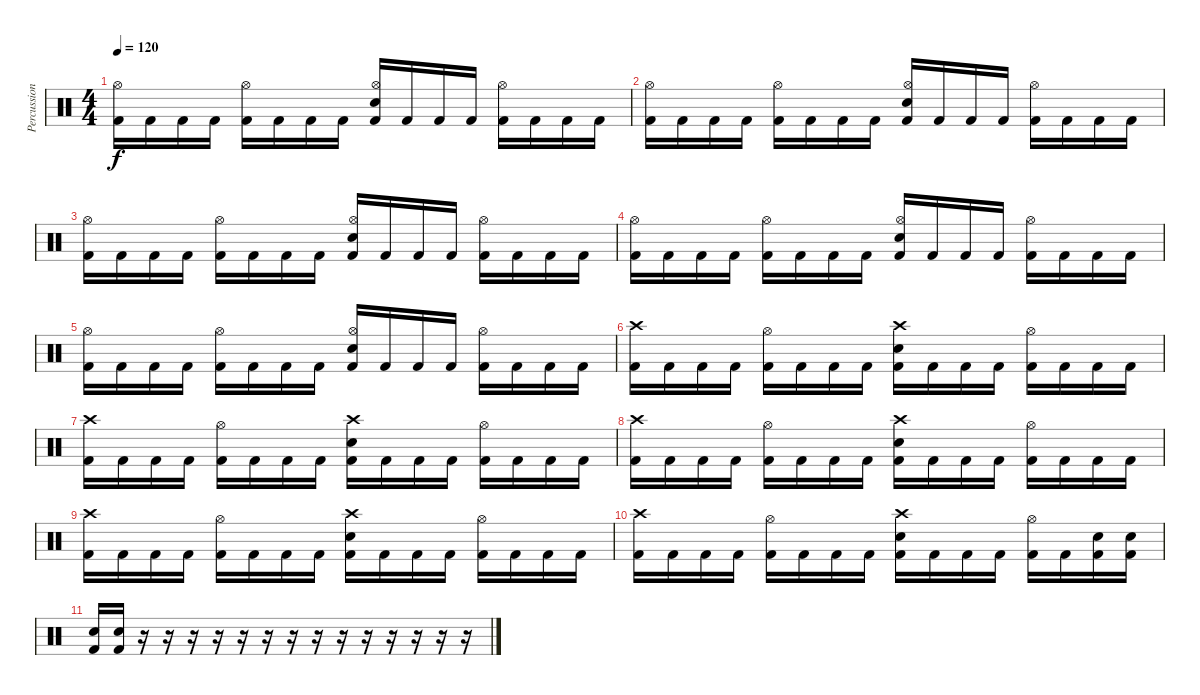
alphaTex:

\track ("Percussion" "Percussion") {instrument percussion}
\staff {score}
\articulation defaults
\ts (4 4)
\tempo 120
\clef neutral
\ks c
("Kick (hit) 2" "Hi-Hat (open)").16{dy f} "Kick (hit) 2".16 "Kick (hit) 2".16 "Kick (hit) 2".16 ("Kick (hit) 2" "Hi-Hat (open)").16 "Kick (hit) 2".16 "Kick (hit) 2".16 "Kick (hit) 2".16 ("Kick (hit) 2" "Hi-Hat (open)" "Electric Snare (hit)").16 "Kick (hit) 2".16 "Kick (hit) 2".16 "Kick (hit) 2".16 ("Kick (hit) 2" "Hi-Hat (open)").16 "Kick (hit) 2".16 "Kick (hit) 2".16 "Kick (hit) 2".16 |
("Kick (hit) 2" "Hi-Hat (open)").16 "Kick (hit) 2".16 "Kick (hit) 2".16 "Kick (hit) 2".16 ("Kick (hit) 2" "Hi-Hat (open)").16 "Kick (hit) 2".16 "Kick (hit) 2".16 "Kick (hit) 2".16 ("Kick (hit) 2" "Hi-Hat (open)" "Electric Snare (hit)").16 "Kick (hit) 2".16 "Kick (hit) 2".16 "Kick (hit) 2".16 ("Kick (hit) 2" "Hi-Hat (open)").16 "Kick (hit) 2".16 "Kick (hit) 2".16 "Kick (hit) 2".16 |
("Kick (hit) 2" "Hi-Hat (open)").16 "Kick (hit) 2".16 "Kick (hit) 2".16 "Kick (hit) 2".16 ("Kick (hit) 2" "Hi-Hat (open)").16 "Kick (hit) 2".16 "Kick (hit) 2".16 "Kick (hit) 2".16 ("Kick (hit) 2" "Hi-Hat (open)" "Electric Snare (hit)").16 "Kick (hit) 2".16 "Kick (hit) 2".16 "Kick (hit) 2".16 ("Kick (hit) 2" "Hi-Hat (open)").16 "Kick (hit) 2".16 "Kick (hit) 2".16 "Kick (hit) 2".16 |
("Kick (hit) 2" "Hi-Hat (open)").16 "Kick (hit) 2".16 "Kick (hit) 2".16 "Kick (hit) 2".16 ("Kick (hit) 2" "Hi-Hat (open)").16 "Kick (hit) 2".16 "Kick (hit) 2".16 "Kick (hit) 2".16 ("Kick (hit) 2" "Hi-Hat (open)" "Electric Snare (hit)").16 "Kick (hit) 2".16 "Kick (hit) 2".16 "Kick (hit) 2".16 ("Kick (hit) 2" "Hi-Hat (open)").16 "Kick (hit) 2".16 "Kick (hit) 2".16 "Kick (hit) 2".16 |
("Kick (hit) 2" "Hi-Hat (open)").16 "Kick (hit) 2".16 "Kick (hit) 2".16 "Kick (hit) 2".16 ("Kick (hit) 2" "Hi-Hat (open)").16 "Kick (hit) 2".16 "Kick (hit) 2".16 "Kick (hit) 2".16 ("Kick (hit) 2" "Hi-Hat (open)" "Electric Snare (hit)").16 "Kick (hit) 2".16 "Kick (hit) 2".16 "Kick (hit) 2".16 ("Kick (hit) 2" "Hi-Hat (open)").16 "Kick (hit) 2".16 "Kick (hit) 2".16 "Kick (hit) 2".16 |
("Kick (hit) 2" "Crash high (hit)").16 "Kick (hit) 2".16 "Kick (hit) 2".16 "Kick (hit) 2".16 ("Kick (hit) 2" "Hi-Hat (open)").16 "Kick (hit) 2".16 "Kick (hit) 2".16 "Kick (hit) 2".16 ("Kick (hit) 2" "Crash high (hit)" "Electric Snare (hit)").16 "Kick (hit) 2".16 "Kick (hit) 2".16 "Kick (hit) 2".16 ("Kick (hit) 2" "Hi-Hat (open)").16 "Kick (hit) 2".16 "Kick (hit) 2".16 "Kick (hit) 2".16 |
("Kick (hit) 2" "Crash high (hit)").16 "Kick (hit) 2".16 "Kick (hit) 2".16 "Kick (hit) 2".16 ("Kick (hit) 2" "Hi-Hat (open)").16 "Kick (hit) 2".16 "Kick (hit) 2".16 "Kick (hit) 2".16 ("Kick (hit) 2" "Crash high (hit)" "Electric Snare (hit)").16 "Kick (hit) 2".16 "Kick (hit) 2".16 "Kick (hit) 2".16 ("Kick (hit) 2" "Hi-Hat (open)").16 "Kick (hit) 2".16 "Kick (hit) 2".16 "Kick (hit) 2".16 |
("Kick (hit) 2" "Crash high (hit)").16 "Kick (hit) 2".16 "Kick (hit) 2".16 "Kick (hit) 2".16 ("Kick (hit) 2" "Hi-Hat (open)").16 "Kick (hit) 2".16 "Kick (hit) 2".16 "Kick (hit) 2".16 ("Kick (hit) 2" "Crash high (hit)" "Electric Snare (hit)").16 "Kick (hit) 2".16 "Kick (hit) 2".16 "Kick (hit) 2".16 ("Kick (hit) 2" "Hi-Hat (open)").16 "Kick (hit) 2".16 "Kick (hit) 2".16 "Kick (hit) 2".16 |
("Kick (hit) 2" "Crash high (hit)").16 "Kick (hit) 2".16 "Kick (hit) 2".16 "Kick (hit) 2".16 ("Kick (hit) 2" "Hi-Hat (open)").16 "Kick (hit) 2".16 "Kick (hit) 2".16 "Kick (hit) 2".16 ("Kick (hit) 2" "Crash high (hit)" "Electric Snare (hit)").16 "Kick (hit) 2".16 "Kick (hit) 2".16 "Kick (hit) 2".16 ("Kick (hit) 2" "Hi-Hat (open)").16 "Kick (hit) 2".16 "Kick (hit) 2".16 "Kick (hit) 2".16 |
("Kick (hit) 2" "Crash high (hit)").16 "Kick (hit) 2".16 "Kick (hit) 2".16 "Kick (hit) 2".16 ("Kick (hit) 2" "Hi-Hat (open)").16 "Kick (hit) 2".16 "Kick (hit) 2".16 "Kick (hit) 2".16 ("Kick (hit) 2" "Crash high (hit)" "Electric Snare (hit)").16 "Kick (hit) 2".16 "Kick (hit) 2".16 "Kick (hit) 2".16 ("Kick (hit) 2" "Hi-Hat (open)").16 "Kick (hit) 2".16 ("Kick (hit) 2" "Electric Snare (hit)").16 ("Kick (hit) 2" "Electric Snare (hit)").16 |
("Kick (hit) 2" "Electric Snare (hit)").16 ("Kick (hit) 2" "Electric Snare (hit)").16 r.16 r.16 r.16 r.16 r.16 r.16 r.16 r.16 r.16 r.16 r.16 r.16 r.16 r.16
